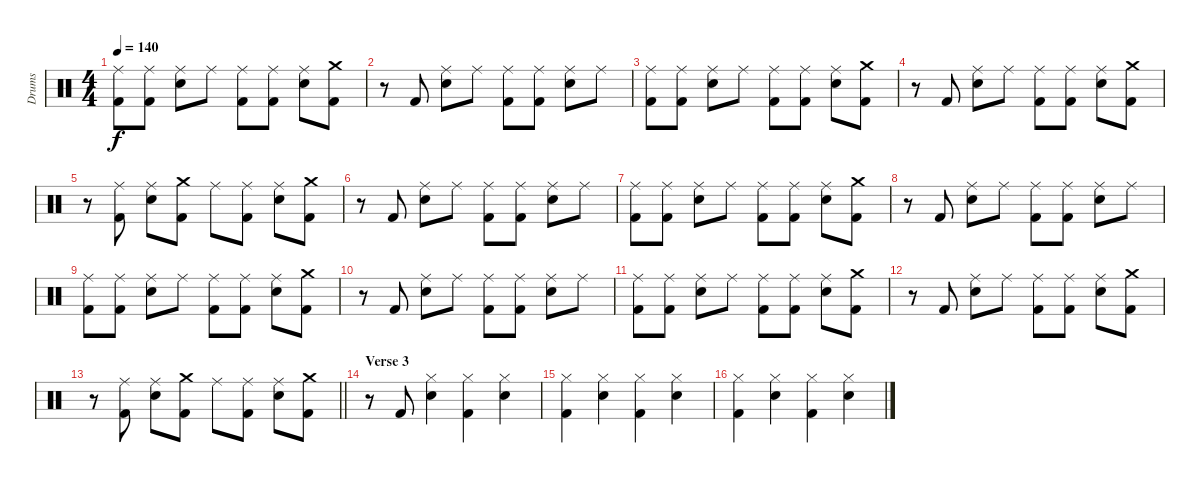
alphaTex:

\track ("Drums" "Drums") {instrument percussion}
\staff {score}
\articulation defaults
\ts (4 4)
\tempo 140
\clef neutral
\ks c
("Ride (middle)" "Kick (hit) 2").8{dy f} ("Ride (middle)" "Kick (hit) 2").8 ("Ride (middle)" "Snare (hit) 2").8 "Ride (middle)".8 ("Ride (middle)" "Kick (hit) 2").8 ("Ride (middle)" "Kick (hit) 2").8 ("Ride (middle)" "Snare (hit) 2").8 ("Crash medium (hit)" "Kick (hit) 2").8 |
r.8 "Kick (hit) 2".8 ("Ride (middle)" "Snare (hit) 2").8 "Ride (middle)".8 ("Ride (middle)" "Kick (hit) 2").8 ("Ride (middle)" "Kick (hit) 2").8 ("Ride (middle)" "Snare (hit) 2").8 "Ride (middle)".8 |
("Ride (middle)" "Kick (hit) 2").8 ("Ride (middle)" "Kick (hit) 2").8 ("Ride (middle)" "Snare (hit) 2").8 "Ride (middle)".8 ("Ride (middle)" "Kick (hit) 2").8 ("Ride (middle)" "Kick (hit) 2").8 ("Ride (middle)" "Snare (hit) 2").8 ("Crash medium (hit)" "Kick (hit) 2").8 |
r.8 "Kick (hit) 2".8 ("Ride (middle)" "Snare (hit) 2").8 "Ride (middle)".8 ("Ride (middle)" "Kick (hit) 2").8 ("Ride (middle)" "Kick (hit) 2").8 ("Ride (middle)" "Snare (hit) 2").8 ("Crash medium (hit)" "Kick (hit) 2").8 |
r.8 ("Ride (middle)" "Kick (hit) 2").8 ("Ride (middle)" "Snare (hit) 2").8 ("Crash medium (hit)" "Kick (hit) 2").8 "Ride (middle)".8 ("Ride (middle)" "Kick (hit) 2").8 ("Ride (middle)" "Snare (hit) 2").8 ("Crash medium (hit)" "Kick (hit) 2").8 |
r.8 "Kick (hit) 2".8 ("Ride (middle)" "Snare (hit) 2").8 "Ride (middle)".8 ("Ride (middle)" "Kick (hit) 2").8 ("Ride (middle)" "Kick (hit) 2").8 ("Ride (middle)" "Snare (hit) 2").8 "Ride (middle)".8 |
("Ride (middle)" "Kick (hit) 2").8 ("Ride (middle)" "Kick (hit) 2").8 ("Ride (middle)" "Snare (hit) 2").8 "Ride (middle)".8 ("Ride (middle)" "Kick (hit) 2").8 ("Ride (middle)" "Kick (hit) 2").8 ("Ride (middle)" "Snare (hit) 2").8 ("Crash medium (hit)" "Kick (hit) 2").8 |
r.8 "Kick (hit) 2".8 ("Ride (middle)" "Snare (hit) 2").8 "Ride (middle)".8 ("Ride (middle)" "Kick (hit) 2").8 ("Ride (middle)" "Kick (hit) 2").8 ("Ride (middle)" "Snare (hit) 2").8 "Ride (middle)".8 |
("Ride (middle)" "Kick (hit) 2").8 ("Ride (middle)" "Kick (hit) 2").8 ("Ride (middle)" "Snare (hit) 2").8 "Ride (middle)".8 ("Ride (middle)" "Kick (hit) 2").8 ("Ride (middle)" "Kick (hit) 2").8 ("Ride (middle)" "Snare (hit) 2").8 ("Crash medium (hit)" "Kick (hit) 2").8 |
r.8 "Kick (hit) 2".8 ("Ride (middle)" "Snare (hit) 2").8 "Ride (middle)".8 ("Ride (middle)" "Kick (hit) 2").8 ("Ride (middle)" "Kick (hit) 2").8 ("Ride (middle)" "Snare (hit) 2").8 "Ride (middle)".8 |
("Ride (middle)" "Kick (hit) 2").8 ("Ride (middle)" "Kick (hit) 2").8 ("Ride (middle)" "Snare (hit) 2").8 "Ride (middle)".8 ("Ride (middle)" "Kick (hit) 2").8 ("Ride (middle)" "Kick (hit) 2").8 ("Ride (middle)" "Snare (hit) 2").8 ("Crash medium (hit)" "Kick (hit) 2").8 |
r.8 "Kick (hit) 2".8 ("Ride (middle)" "Snare (hit) 2").8 "Ride (middle)".8 ("Ride (middle)" "Kick (hit) 2").8 ("Ride (middle)" "Kick (hit) 2").8 ("Ride (middle)" "Snare (hit) 2").8 ("Crash medium (hit)" "Kick (hit) 2").8 |
\barLineRight lightlight
r.8 ("Ride (middle)" "Kick (hit) 2").8 ("Ride (middle)" "Snare (hit) 2").8 ("Crash medium (hit)" "Kick (hit) 2").8 "Ride (middle)".8 ("Ride (middle)" "Kick (hit) 2").8 ("Ride (middle)" "Snare (hit) 2").8 ("Crash medium (hit)" "Kick (hit) 2").8 |
\section ("" "Verse 3")
r.8 "Kick (hit) 2".8 ("Hi-Hat (closed)" "Snare (hit) 2").4 ("Hi-Hat (closed)" "Kick (hit) 2").4 ("Hi-Hat (closed)" "Snare (hit) 2").4 |
("Hi-Hat (closed)" "Kick (hit) 2").4 ("Hi-Hat (closed)" "Snare (hit) 2").4 ("Hi-Hat (closed)" "Kick (hit) 2").4 ("Hi-Hat (closed)" "Snare (hit) 2").4 |
("Hi-Hat (closed)" "Kick (hit) 2").4 ("Hi-Hat (closed)" "Snare (hit) 2").4 ("Hi-Hat (closed)" "Kick (hit) 2").4 ("Hi-Hat (closed)" "Snare (hit) 2").4
